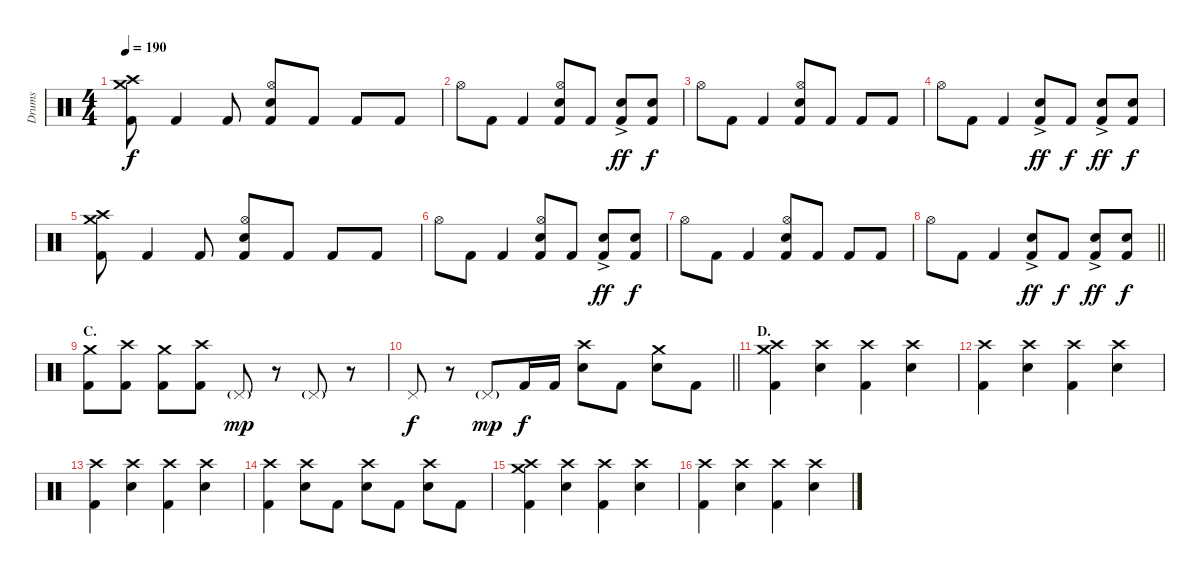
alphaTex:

\track ("Drums" "Drums") {instrument percussion}
\staff {score}
\articulation defaults
\ts (4 4)
\tempo 190
\clef neutral
\ks c
("Crash medium (hit)" "Crash high (hit)" "Kick (hit) 2").8{dy f} "Kick (hit) 2".4 "Kick (hit) 2".8 ("Hi-Hat (open)" "Electric Snare (hit)" "Kick (hit) 2").8 "Kick (hit) 2".8 "Kick (hit) 2".8 "Kick (hit) 2".8 |
"Hi-Hat (open)".8 "Kick (hit) 2".8 "Kick (hit) 2".4 ("Hi-Hat (open)" "Electric Snare (hit)" "Kick (hit) 2").8 "Kick (hit) 2".8 ("Electric Snare (hit)"{ac} "Kick (hit) 2").8{dy ff} ("Electric Snare (hit)" "Kick (hit) 2").8{dy f} |
"Hi-Hat (open)".8 "Kick (hit) 2".8 "Kick (hit) 2".4 ("Hi-Hat (open)" "Electric Snare (hit)" "Kick (hit) 2").8 "Kick (hit) 2".8 "Kick (hit) 2".8 "Kick (hit) 2".8 |
"Hi-Hat (open)".8 "Kick (hit) 2".8 "Kick (hit) 2".4 ("Electric Snare (hit)"{ac} "Kick (hit) 2").8{dy ff} "Kick (hit) 2".8{dy f} ("Electric Snare (hit)"{ac} "Kick (hit) 2").8{dy ff} ("Electric Snare (hit)" "Kick (hit) 2").8{dy f} |
("Crash medium (hit)" "Crash high (hit)" "Kick (hit) 2").8 "Kick (hit) 2".4 "Kick (hit) 2".8 ("Hi-Hat (open)" "Electric Snare (hit)" "Kick (hit) 2").8 "Kick (hit) 2".8 "Kick (hit) 2".8 "Kick (hit) 2".8 |
"Hi-Hat (open)".8 "Kick (hit) 2".8 "Kick (hit) 2".4 ("Hi-Hat (open)" "Electric Snare (hit)" "Kick (hit) 2").8 "Kick (hit) 2".8 ("Electric Snare (hit)"{ac} "Kick (hit) 2").8{dy ff} ("Electric Snare (hit)" "Kick (hit) 2").8{dy f} |
"Hi-Hat (open)".8 "Kick (hit) 2".8 "Kick (hit) 2".4 ("Hi-Hat (open)" "Electric Snare (hit)" "Kick (hit) 2").8 "Kick (hit) 2".8 "Kick (hit) 2".8 "Kick (hit) 2".8 |
\barLineRight lightlight "Hi-Hat (open)".8 "Kick (hit) 2".8 "Kick (hit) 2".4
("Electric Snare (hit)"{ac} "Kick (hit) 2").8{dy ff} "Kick (hit) 2".8{dy f} ("Electric Snare (hit)"{ac} "Kick (hit) 2").8{dy ff} ("Electric Snare (hit)" "Kick (hit) 2").8{dy f} |
\section ("" "C.")
("Crash medium (hit)" "Kick (hit) 2").8 ("Crash high (hit)" "Kick (hit) 2").8 ("Crash medium (hit)" "Kick (hit) 2").8 ("Crash high (hit)" "Kick (hit) 2").8 "Pedal Hi-Hat (hit)"{g}.8{dy mp} r.8 "Pedal Hi-Hat (hit)"{g}.8 r.8 |
\barLineRight lightlight "Pedal Hi-Hat (hit)".8{dy f}
r.8 "Pedal Hi-Hat (hit)"{g}.8{dy mp} "Kick (hit) 2".16{dy f} "Kick (hit) 2".16 ("Crash high (hit)" "Electric Snare (hit)").8 "Kick (hit) 2".8 ("Crash medium (hit)" "Electric Snare (hit)").8 "Kick (hit) 2".8 |
\section ("" "D.")
("Crash medium (hit)" "Crash high (hit)" "Kick (hit) 2").4 ("Crash high (hit)" "Electric Snare (hit)").4 ("Crash high (hit)" "Kick (hit) 2").4 ("Crash high (hit)" "Electric Snare (hit)").4 |
("Crash high (hit)" "Kick (hit) 2").4 ("Crash high (hit)" "Electric Snare (hit)").4 ("Crash high (hit)" "Kick (hit) 2").4 ("Crash high (hit)" "Electric Snare (hit)").4 |
("Crash high (hit)" "Kick (hit) 2").4 ("Crash high (hit)" "Electric Snare (hit)").4 ("Crash high (hit)" "Kick (hit) 2").4 ("Crash high (hit)" "Electric Snare (hit)").4 |
("Crash high (hit)" "Kick (hit) 2").4 ("Crash high (hit)" "Electric Snare (hit)").8 "Kick (hit) 2".8 ("Crash high (hit)" "Electric Snare (hit)").8 "Kick (hit) 2".8 ("Crash high (hit)" "Electric Snare (hit)").8 "Kick (hit) 2".8 |
("Crash medium (hit)" "Crash high (hit)" "Kick (hit) 2").4 ("Crash high (hit)" "Electric Snare (hit)").4 ("Crash high (hit)" "Kick (hit) 2").4 ("Crash high (hit)" "Electric Snare (hit)").4 |
("Crash high (hit)" "Kick (hit) 2").4 ("Crash high (hit)" "Electric Snare (hit)").4 ("Crash high (hit)" "Kick (hit) 2").4 ("Crash high (hit)" "Electric Snare (hit)").4
